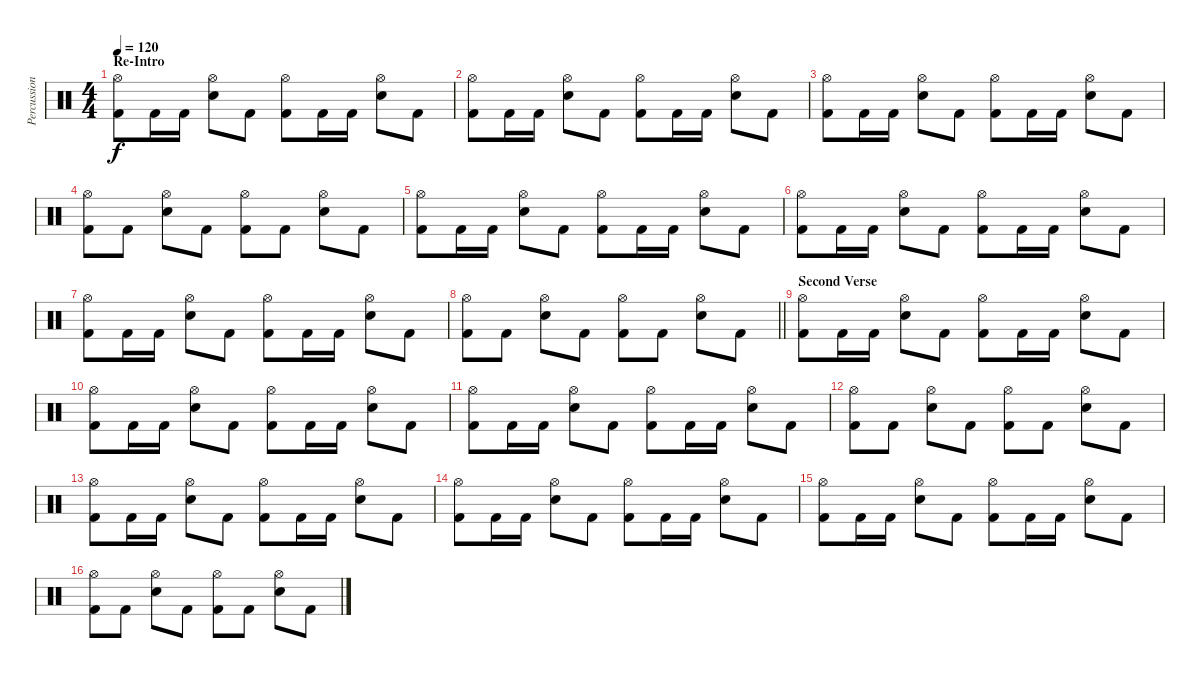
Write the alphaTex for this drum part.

\track ("Percussion" "Percussion") {instrument percussion}
\staff {score}
\articulation defaults
\ts (4 4)
\section ("" "Re-Intro")
\tempo 120
\clef neutral
\ks c
("Hi-Hat (open)" "Kick (hit) 2").8{dy f} "Kick (hit) 2".16 "Kick (hit) 2".16 ("Hi-Hat (open)" "Electric Snare (hit)").8 "Kick (hit) 2".8 ("Hi-Hat (open)" "Kick (hit) 2").8 "Kick (hit) 2".16 "Kick (hit) 2".16 ("Hi-Hat (open)" "Electric Snare (hit)").8 "Kick (hit) 2".8 |
("Hi-Hat (open)" "Kick (hit) 2").8 "Kick (hit) 2".16 "Kick (hit) 2".16 ("Hi-Hat (open)" "Electric Snare (hit)").8 "Kick (hit) 2".8 ("Hi-Hat (open)" "Kick (hit) 2").8 "Kick (hit) 2".16 "Kick (hit) 2".16 ("Hi-Hat (open)" "Electric Snare (hit)").8 "Kick (hit) 2".8 |
("Hi-Hat (open)" "Kick (hit) 2").8 "Kick (hit) 2".16 "Kick (hit) 2".16 ("Hi-Hat (open)" "Electric Snare (hit)").8 "Kick (hit) 2".8 ("Hi-Hat (open)" "Kick (hit) 2").8 "Kick (hit) 2".16 "Kick (hit) 2".16 ("Hi-Hat (open)" "Electric Snare (hit)").8 "Kick (hit) 2".8 |
("Hi-Hat (open)" "Kick (hit) 2").8 "Kick (hit) 2".8 ("Hi-Hat (open)" "Electric Snare (hit)").8 "Kick (hit) 2".8 ("Hi-Hat (open)" "Kick (hit) 2").8 "Kick (hit) 2".8 ("Hi-Hat (open)" "Electric Snare (hit)").8 "Kick (hit) 2".8 |
("Hi-Hat (open)" "Kick (hit) 2").8 "Kick (hit) 2".16 "Kick (hit) 2".16 ("Hi-Hat (open)" "Electric Snare (hit)").8 "Kick (hit) 2".8 ("Hi-Hat (open)" "Kick (hit) 2").8 "Kick (hit) 2".16 "Kick (hit) 2".16 ("Hi-Hat (open)" "Electric Snare (hit)").8 "Kick (hit) 2".8 |
("Hi-Hat (open)" "Kick (hit) 2").8 "Kick (hit) 2".16 "Kick (hit) 2".16 ("Hi-Hat (open)" "Electric Snare (hit)").8 "Kick (hit) 2".8 ("Hi-Hat (open)" "Kick (hit) 2").8 "Kick (hit) 2".16 "Kick (hit) 2".16 ("Hi-Hat (open)" "Electric Snare (hit)").8 "Kick (hit) 2".8 |
("Hi-Hat (open)" "Kick (hit) 2").8 "Kick (hit) 2".16 "Kick (hit) 2".16 ("Hi-Hat (open)" "Electric Snare (hit)").8 "Kick (hit) 2".8 ("Hi-Hat (open)" "Kick (hit) 2").8 "Kick (hit) 2".16 "Kick (hit) 2".16 ("Hi-Hat (open)" "Electric Snare (hit)").8 "Kick (hit) 2".8 |
\barLineRight lightlight
("Hi-Hat (open)" "Kick (hit) 2").8 "Kick (hit) 2".8 ("Hi-Hat (open)" "Electric Snare (hit)").8 "Kick (hit) 2".8 ("Hi-Hat (open)" "Kick (hit) 2").8 "Kick (hit) 2".8 ("Hi-Hat (open)" "Electric Snare (hit)").8 "Kick (hit) 2".8 |
\section ("" "Second Verse")
("Hi-Hat (open)" "Kick (hit) 2").8 "Kick (hit) 2".16 "Kick (hit) 2".16 ("Hi-Hat (open)" "Electric Snare (hit)").8 "Kick (hit) 2".8 ("Hi-Hat (open)" "Kick (hit) 2").8 "Kick (hit) 2".16 "Kick (hit) 2".16 ("Hi-Hat (open)" "Electric Snare (hit)").8 "Kick (hit) 2".8 |
("Hi-Hat (open)" "Kick (hit) 2").8 "Kick (hit) 2".16 "Kick (hit) 2".16 ("Hi-Hat (open)" "Electric Snare (hit)").8 "Kick (hit) 2".8 ("Hi-Hat (open)" "Kick (hit) 2").8 "Kick (hit) 2".16 "Kick (hit) 2".16 ("Hi-Hat (open)" "Electric Snare (hit)").8 "Kick (hit) 2".8 |
("Hi-Hat (open)" "Kick (hit) 2").8 "Kick (hit) 2".16 "Kick (hit) 2".16 ("Hi-Hat (open)" "Electric Snare (hit)").8 "Kick (hit) 2".8 ("Hi-Hat (open)" "Kick (hit) 2").8 "Kick (hit) 2".16 "Kick (hit) 2".16 ("Hi-Hat (open)" "Electric Snare (hit)").8 "Kick (hit) 2".8 |
("Hi-Hat (open)" "Kick (hit) 2").8 "Kick (hit) 2".8 ("Hi-Hat (open)" "Electric Snare (hit)").8 "Kick (hit) 2".8 ("Hi-Hat (open)" "Kick (hit) 2").8 "Kick (hit) 2".8 ("Hi-Hat (open)" "Electric Snare (hit)").8 "Kick (hit) 2".8 |
("Hi-Hat (open)" "Kick (hit) 2").8 "Kick (hit) 2".16 "Kick (hit) 2".16 ("Hi-Hat (open)" "Electric Snare (hit)").8 "Kick (hit) 2".8 ("Hi-Hat (open)" "Kick (hit) 2").8 "Kick (hit) 2".16 "Kick (hit) 2".16 ("Hi-Hat (open)" "Electric Snare (hit)").8 "Kick (hit) 2".8 |
("Hi-Hat (open)" "Kick (hit) 2").8 "Kick (hit) 2".16 "Kick (hit) 2".16 ("Hi-Hat (open)" "Electric Snare (hit)").8 "Kick (hit) 2".8 ("Hi-Hat (open)" "Kick (hit) 2").8 "Kick (hit) 2".16 "Kick (hit) 2".16 ("Hi-Hat (open)" "Electric Snare (hit)").8 "Kick (hit) 2".8 |
("Hi-Hat (open)" "Kick (hit) 2").8 "Kick (hit) 2".16 "Kick (hit) 2".16 ("Hi-Hat (open)" "Electric Snare (hit)").8 "Kick (hit) 2".8 ("Hi-Hat (open)" "Kick (hit) 2").8 "Kick (hit) 2".16 "Kick (hit) 2".16 ("Hi-Hat (open)" "Electric Snare (hit)").8 "Kick (hit) 2".8 |
("Hi-Hat (open)" "Kick (hit) 2").8 "Kick (hit) 2".8 ("Hi-Hat (open)" "Electric Snare (hit)").8 "Kick (hit) 2".8 ("Hi-Hat (open)" "Kick (hit) 2").8 "Kick (hit) 2".8 ("Hi-Hat (open)" "Electric Snare (hit)").8 "Kick (hit) 2".8
